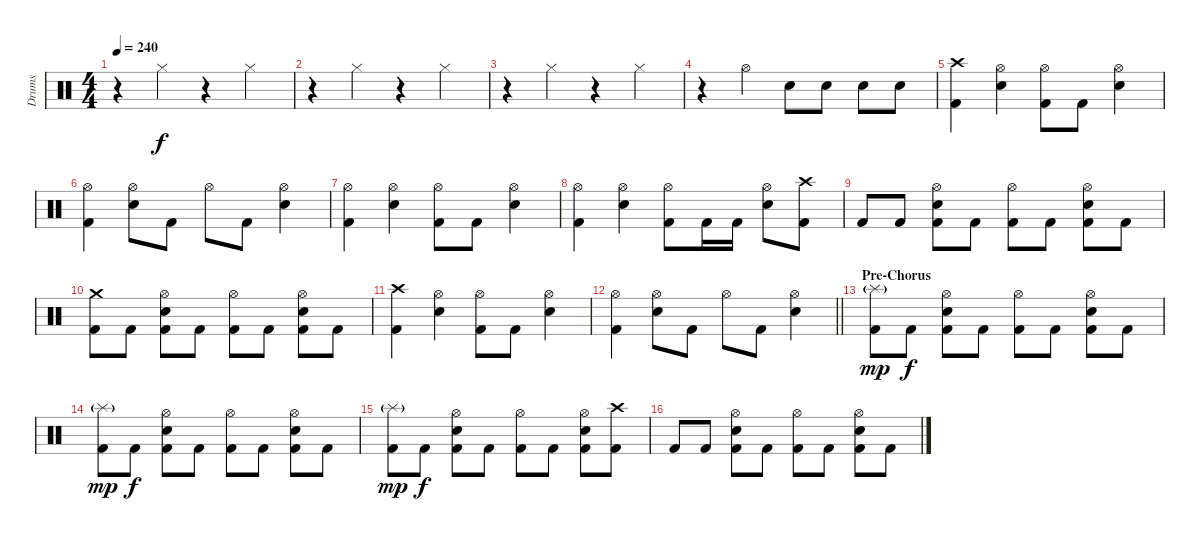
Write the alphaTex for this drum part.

\track ("Drums" "Drums") {instrument percussion}
\staff {score}
\articulation defaults
\ts (4 4)
\tempo 240
\clef neutral
\ks c
r.4{dy f} "Hi-Hat (closed)".4 r.4 "Hi-Hat (closed)".4 |
r.4 "Hi-Hat (closed)".4 r.4 "Hi-Hat (closed)".4 |
r.4 "Hi-Hat (closed)".4 r.4 "Hi-Hat (closed)".4 |
r.4 "Hi-Hat (open)".4 "Snare (hit) 2".8 "Snare (hit) 2".8 "Snare (hit) 2".8 "Snare (hit) 2".8 |
("Crash high (hit)" "Kick (hit) 2").4 ("Hi-Hat (open)" "Snare (hit) 2").4 ("Hi-Hat (open)" "Kick (hit) 2").8 "Kick (hit) 2".8 ("Hi-Hat (open)" "Snare (hit) 2").4 |
("Hi-Hat (open)" "Kick (hit) 2").4 ("Hi-Hat (open)" "Snare (hit) 2").8 "Kick (hit) 2".8 "Hi-Hat (open)".8 "Kick (hit) 2".8 ("Hi-Hat (open)" "Snare (hit) 2").4 |
("Hi-Hat (open)" "Kick (hit) 2").4 ("Hi-Hat (open)" "Snare (hit) 2").4 ("Hi-Hat (open)" "Kick (hit) 2").8 "Kick (hit) 2".8 ("Hi-Hat (open)" "Snare (hit) 2").4 |
("Hi-Hat (open)" "Kick (hit) 2").4 ("Hi-Hat (open)" "Snare (hit) 2").4 ("Hi-Hat (open)" "Kick (hit) 2").8 "Kick (hit) 2".16 "Kick (hit) 2".16 ("Hi-Hat (open)" "Snare (hit) 2").8 ("Crash high (hit)" "Kick (hit) 2").8 |
"Kick (hit) 2".8 "Kick (hit) 2".8 ("Hi-Hat (open)" "Snare (hit) 2" "Kick (hit) 2").8 "Kick (hit) 2".8 ("Hi-Hat (open)" "Kick (hit) 2").8 "Kick (hit) 2".8 ("Hi-Hat (open)" "Snare (hit) 2" "Kick (hit) 2").8 "Kick (hit) 2".8 |
("Crash medium (hit)" "Kick (hit) 2").8 "Kick (hit) 2".8 ("Hi-Hat (open)" "Snare (hit) 2" "Kick (hit) 2").8 "Kick (hit) 2".8 ("Hi-Hat (open)" "Kick (hit) 2").8 "Kick (hit) 2".8 ("Hi-Hat (open)" "Snare (hit) 2" "Kick (hit) 2").8 "Kick (hit) 2".8 |
("Crash high (hit)" "Kick (hit) 2").4 ("Hi-Hat (open)" "Snare (hit) 2").4 ("Hi-Hat (open)" "Kick (hit) 2").8 "Kick (hit) 2".8 ("Hi-Hat (open)" "Snare (hit) 2").4 |
\barLineRight lightlight
("Hi-Hat (open)" "Kick (hit) 2").4 ("Hi-Hat (open)" "Snare (hit) 2").8 "Kick (hit) 2".8 "Hi-Hat (open)".8 "Kick (hit) 2".8 ("Hi-Hat (open)" "Snare (hit) 2").4 |
\section ("" "Pre-Chorus")
("Splash (hit)"{g} "Kick (hit) 2").8{dy mp} "Kick (hit) 2".8{dy f} ("Hi-Hat (open)" "Snare (hit) 2" "Kick (hit) 2").8 "Kick (hit) 2".8 ("Hi-Hat (open)" "Kick (hit) 2").8 "Kick (hit) 2".8 ("Hi-Hat (open)" "Snare (hit) 2" "Kick (hit) 2").8 "Kick (hit) 2".8 |
("Splash (hit)"{g} "Kick (hit) 2").8{dy mp} "Kick (hit) 2".8{dy f} ("Hi-Hat (open)" "Snare (hit) 2" "Kick (hit) 2").8 "Kick (hit) 2".8 ("Hi-Hat (open)" "Kick (hit) 2").8 "Kick (hit) 2".8 ("Hi-Hat (open)" "Snare (hit) 2" "Kick (hit) 2").8 "Kick (hit) 2".8 |
("Splash (hit)"{g} "Kick (hit) 2").8{dy mp} "Kick (hit) 2".8{dy f} ("Hi-Hat (open)" "Snare (hit) 2" "Kick (hit) 2").8 "Kick (hit) 2".8 ("Hi-Hat (open)" "Kick (hit) 2").8 "Kick (hit) 2".8 ("Hi-Hat (open)" "Snare (hit) 2" "Kick (hit) 2").8 ("Crash high (hit)" "Kick (hit) 2").8 |
"Kick (hit) 2".8 "Kick (hit) 2".8 ("Hi-Hat (open)" "Snare (hit) 2" "Kick (hit) 2").8 "Kick (hit) 2".8 ("Hi-Hat (open)" "Kick (hit) 2").8 "Kick (hit) 2".8 ("Hi-Hat (open)" "Snare (hit) 2" "Kick (hit) 2").8 "Kick (hit) 2".8
